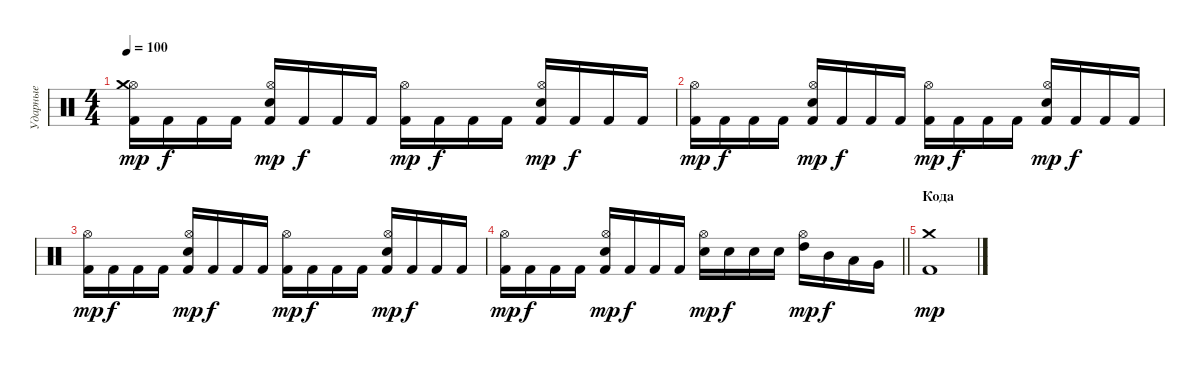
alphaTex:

\track ("Ударные" "Ударные") {instrument percussion}
\staff {score}
\articulation defaults
\ts (4 4)
\tempo 100
\clef neutral
\ks aminor
("Kick (hit) 2" "Hi-Hat (open)" "Crash medium (hit)").16{dy mp} "Kick (hit) 2".16{dy f} "Kick (hit) 2".16 "Kick (hit) 2".16 ("Electric Snare (hit)" "Kick (hit) 2" "Hi-Hat (open)").16{dy mp} "Kick (hit) 2".16{dy f} "Kick (hit) 2".16 "Kick (hit) 2".16 ("Kick (hit) 2" "Hi-Hat (open)").16{dy mp} "Kick (hit) 2".16{dy f} "Kick (hit) 2".16 "Kick (hit) 2".16 ("Electric Snare (hit)" "Kick (hit) 2" "Hi-Hat (open)").16{dy mp} "Kick (hit) 2".16{dy f} "Kick (hit) 2".16 "Kick (hit) 2".16 |
("Kick (hit) 2" "Hi-Hat (open)").16{dy mp} "Kick (hit) 2".16{dy f} "Kick (hit) 2".16 "Kick (hit) 2".16 ("Electric Snare (hit)" "Kick (hit) 2" "Hi-Hat (open)").16{dy mp} "Kick (hit) 2".16{dy f} "Kick (hit) 2".16 "Kick (hit) 2".16 ("Kick (hit) 2" "Hi-Hat (open)").16{dy mp} "Kick (hit) 2".16{dy f} "Kick (hit) 2".16 "Kick (hit) 2".16 ("Electric Snare (hit)" "Kick (hit) 2" "Hi-Hat (open)").16{dy mp} "Kick (hit) 2".16{dy f} "Kick (hit) 2".16 "Kick (hit) 2".16 |
("Kick (hit) 2" "Hi-Hat (open)").16{dy mp} "Kick (hit) 2".16{dy f} "Kick (hit) 2".16 "Kick (hit) 2".16 ("Electric Snare (hit)" "Kick (hit) 2" "Hi-Hat (open)").16{dy mp} "Kick (hit) 2".16{dy f} "Kick (hit) 2".16 "Kick (hit) 2".16 ("Kick (hit) 2" "Hi-Hat (open)").16{dy mp} "Kick (hit) 2".16{dy f} "Kick (hit) 2".16 "Kick (hit) 2".16 ("Electric Snare (hit)" "Kick (hit) 2" "Hi-Hat (open)").16{dy mp} "Kick (hit) 2".16{dy f} "Kick (hit) 2".16 "Kick (hit) 2".16 |
\barLineRight lightlight
("Kick (hit) 2" "Hi-Hat (open)").16{dy mp} "Kick (hit) 2".16{dy f} "Kick (hit) 2".16 "Kick (hit) 2".16 ("Electric Snare (hit)" "Kick (hit) 2" "Hi-Hat (open)").16{dy mp} "Kick (hit) 2".16{dy f} "Kick (hit) 2".16 "Kick (hit) 2".16 ("Electric Snare (hit)" "Hi-Hat (open)").16{dy mp} "Electric Snare (hit)".16{dy f} "Electric Snare (hit)".16 "Electric Snare (hit)".16 ("High Tom (hit)" "Hi-Hat (open)").16{dy mp} "Mid Tom (hit)".16{dy f} "Low Tom (hit)".16 "Very Low Tom (hit)".16 |
\section ("" "Кода")
("Crash medium (hit)" "Kick (hit) 2").1{dy mp}
